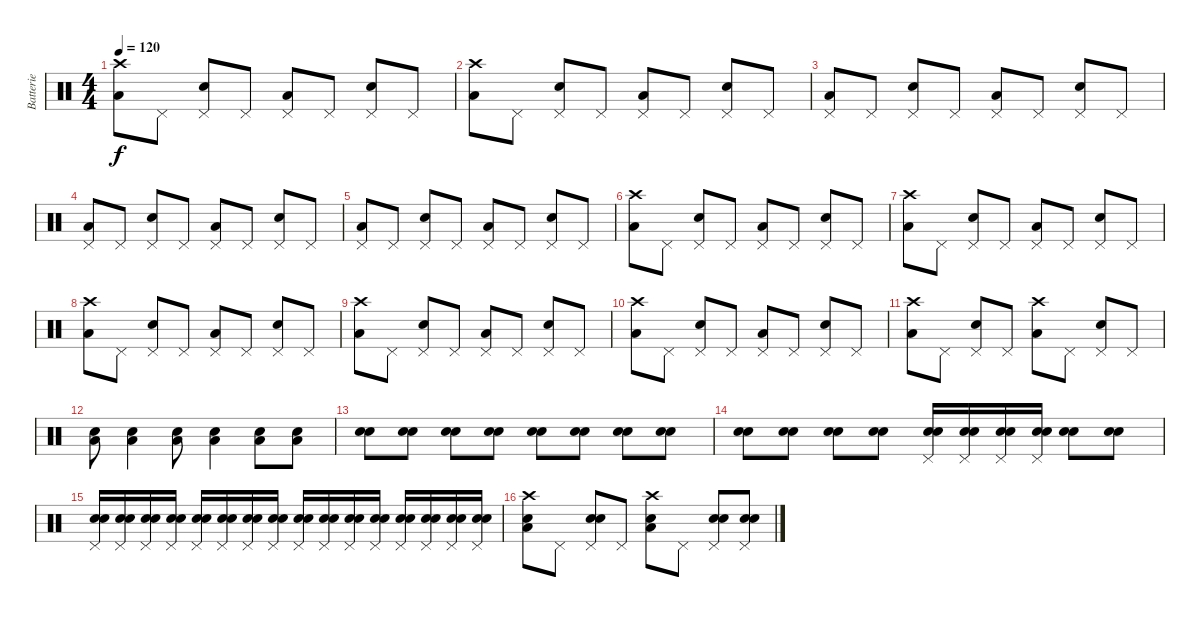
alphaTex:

\track ("Batterie" "Batterie") {instrument percussion}
\staff {score}
\articulation defaults
\ts (4 4)
\tempo 120
\clef neutral
\ks c
("Crash high (hit)" "Low Floor Tom (hit)").8{dy f} "Pedal Hi-Hat (hit)".8 ("Pedal Hi-Hat (hit)" "Electric Snare (hit)").8 "Pedal Hi-Hat (hit)".8 ("Pedal Hi-Hat (hit)" "Low Floor Tom (hit)").8 "Pedal Hi-Hat (hit)".8 ("Pedal Hi-Hat (hit)" "Electric Snare (hit)").8 "Pedal Hi-Hat (hit)".8 |
("Crash high (hit)" "Low Floor Tom (hit)").8 "Pedal Hi-Hat (hit)".8 ("Pedal Hi-Hat (hit)" "Electric Snare (hit)").8 "Pedal Hi-Hat (hit)".8 ("Pedal Hi-Hat (hit)" "Low Floor Tom (hit)").8 "Pedal Hi-Hat (hit)".8 ("Pedal Hi-Hat (hit)" "Electric Snare (hit)").8 "Pedal Hi-Hat (hit)".8 |
("Pedal Hi-Hat (hit)" "Low Floor Tom (hit)").8 "Pedal Hi-Hat (hit)".8 ("Pedal Hi-Hat (hit)" "Electric Snare (hit)").8 "Pedal Hi-Hat (hit)".8 ("Pedal Hi-Hat (hit)" "Low Floor Tom (hit)").8 "Pedal Hi-Hat (hit)".8 ("Pedal Hi-Hat (hit)" "Electric Snare (hit)").8 "Pedal Hi-Hat (hit)".8 |
("Pedal Hi-Hat (hit)" "Low Floor Tom (hit)").8 "Pedal Hi-Hat (hit)".8 ("Pedal Hi-Hat (hit)" "Electric Snare (hit)").8 "Pedal Hi-Hat (hit)".8 ("Pedal Hi-Hat (hit)" "Low Floor Tom (hit)").8 "Pedal Hi-Hat (hit)".8 ("Pedal Hi-Hat (hit)" "Electric Snare (hit)").8 "Pedal Hi-Hat (hit)".8 |
("Pedal Hi-Hat (hit)" "Low Floor Tom (hit)").8 "Pedal Hi-Hat (hit)".8 ("Pedal Hi-Hat (hit)" "Electric Snare (hit)").8 "Pedal Hi-Hat (hit)".8 ("Pedal Hi-Hat (hit)" "Low Floor Tom (hit)").8 "Pedal Hi-Hat (hit)".8 ("Pedal Hi-Hat (hit)" "Electric Snare (hit)").8 "Pedal Hi-Hat (hit)".8 |
("Crash high (hit)" "Low Floor Tom (hit)").8 "Pedal Hi-Hat (hit)".8 ("Pedal Hi-Hat (hit)" "Electric Snare (hit)").8 "Pedal Hi-Hat (hit)".8 ("Pedal Hi-Hat (hit)" "Low Floor Tom (hit)").8 "Pedal Hi-Hat (hit)".8 ("Pedal Hi-Hat (hit)" "Electric Snare (hit)").8 "Pedal Hi-Hat (hit)".8 |
("Crash high (hit)" "Low Floor Tom (hit)").8 "Pedal Hi-Hat (hit)".8 ("Pedal Hi-Hat (hit)" "Electric Snare (hit)").8 "Pedal Hi-Hat (hit)".8 ("Pedal Hi-Hat (hit)" "Low Floor Tom (hit)").8 "Pedal Hi-Hat (hit)".8 ("Pedal Hi-Hat (hit)" "Electric Snare (hit)").8 "Pedal Hi-Hat (hit)".8 |
("Crash high (hit)" "Low Floor Tom (hit)").8 "Pedal Hi-Hat (hit)".8 ("Pedal Hi-Hat (hit)" "Electric Snare (hit)").8 "Pedal Hi-Hat (hit)".8 ("Pedal Hi-Hat (hit)" "Low Floor Tom (hit)").8 "Pedal Hi-Hat (hit)".8 ("Pedal Hi-Hat (hit)" "Electric Snare (hit)").8 "Pedal Hi-Hat (hit)".8 |
("Crash high (hit)" "Low Floor Tom (hit)").8 "Pedal Hi-Hat (hit)".8 ("Pedal Hi-Hat (hit)" "Electric Snare (hit)").8 "Pedal Hi-Hat (hit)".8 ("Pedal Hi-Hat (hit)" "Low Floor Tom (hit)").8 "Pedal Hi-Hat (hit)".8 ("Pedal Hi-Hat (hit)" "Electric Snare (hit)").8 "Pedal Hi-Hat (hit)".8 |
("Crash high (hit)" "Low Floor Tom (hit)").8 "Pedal Hi-Hat (hit)".8 ("Pedal Hi-Hat (hit)" "Electric Snare (hit)").8 "Pedal Hi-Hat (hit)".8 ("Pedal Hi-Hat (hit)" "Low Floor Tom (hit)").8 "Pedal Hi-Hat (hit)".8 ("Pedal Hi-Hat (hit)" "Electric Snare (hit)").8 "Pedal Hi-Hat (hit)".8 |
("Crash high (hit)" "Low Floor Tom (hit)").8 "Pedal Hi-Hat (hit)".8 ("Pedal Hi-Hat (hit)" "Electric Snare (hit)").8 "Pedal Hi-Hat (hit)".8 ("Crash high (hit)" "Low Floor Tom (hit)").8 "Pedal Hi-Hat (hit)".8 ("Pedal Hi-Hat (hit)" "Electric Snare (hit)").8 "Pedal Hi-Hat (hit)".8 |
("Electric Snare (hit)" "Low Floor Tom (hit)").8 ("Electric Snare (hit)" "Low Floor Tom (hit)").4 ("Electric Snare (hit)" "Low Floor Tom (hit)").8 ("Electric Snare (hit)" "Low Floor Tom (hit)").4 ("Electric Snare (hit)" "Low Floor Tom (hit)").8 ("Electric Snare (hit)" "Low Floor Tom (hit)").8 |
("Electric Snare (hit)" "Snare (hit) 2").8 ("Electric Snare (hit)" "Snare (hit) 2").8 ("Electric Snare (hit)" "Snare (hit) 2").8 ("Electric Snare (hit)" "Snare (hit) 2").8 ("Electric Snare (hit)" "Snare (hit) 2").8 ("Electric Snare (hit)" "Snare (hit) 2").8 ("Electric Snare (hit)" "Snare (hit) 2").8 ("Electric Snare (hit)" "Snare (hit) 2").8 |
("Electric Snare (hit)" "Snare (hit) 2").8 ("Electric Snare (hit)" "Snare (hit) 2").8 ("Electric Snare (hit)" "Snare (hit) 2").8 ("Electric Snare (hit)" "Snare (hit) 2").8 ("Electric Snare (hit)" "Snare (hit) 2" "Pedal Hi-Hat (hit)").16 ("Electric Snare (hit)" "Snare (hit) 2" "Pedal Hi-Hat (hit)").16 ("Electric Snare (hit)" "Snare (hit) 2" "Pedal Hi-Hat (hit)").16 ("Electric Snare (hit)" "Snare (hit) 2" "Pedal Hi-Hat (hit)").16 ("Electric Snare (hit)" "Snare (hit) 2").8 ("Electric Snare (hit)" "Snare (hit) 2").8 |
("Electric Snare (hit)" "Snare (hit) 2" "Pedal Hi-Hat (hit)").16 ("Electric Snare (hit)" "Snare (hit) 2" "Pedal Hi-Hat (hit)").16 ("Electric Snare (hit)" "Snare (hit) 2" "Pedal Hi-Hat (hit)").16 ("Electric Snare (hit)" "Snare (hit) 2" "Pedal Hi-Hat (hit)").16 ("Electric Snare (hit)" "Snare (hit) 2" "Pedal Hi-Hat (hit)").16 ("Electric Snare (hit)" "Snare (hit) 2" "Pedal Hi-Hat (hit)").16 ("Electric Snare (hit)" "Snare (hit) 2" "Pedal Hi-Hat (hit)").16 ("Electric Snare (hit)" "Snare (hit) 2" "Pedal Hi-Hat (hit)").16 ("Electric Snare (hit)" "Snare (hit) 2" "Pedal Hi-Hat (hit)").16 ("Electric Snare (hit)" "Snare (hit) 2" "Pedal Hi-Hat (hit)").16 ("Electric Snare (hit)" "Snare (hit) 2" "Pedal Hi-Hat (hit)").16 ("Electric Snare (hit)" "Snare (hit) 2" "Pedal Hi-Hat (hit)").16 ("Electric Snare (hit)" "Snare (hit) 2" "Pedal Hi-Hat (hit)").16 ("Electric Snare (hit)" "Snare (hit) 2" "Pedal Hi-Hat (hit)").16 ("Electric Snare (hit)" "Snare (hit) 2" "Pedal Hi-Hat (hit)").16 ("Electric Snare (hit)" "Snare (hit) 2" "Pedal Hi-Hat (hit)").16 |
("Crash high (hit)" "Low Floor Tom (hit)" "Snare (hit) 2").8 "Pedal Hi-Hat (hit)".8 ("Pedal Hi-Hat (hit)" "Electric Snare (hit)" "Snare (hit) 2").8 "Pedal Hi-Hat (hit)".8 ("Crash high (hit)" "Low Floor Tom (hit)" "Snare (hit) 2").8 "Pedal Hi-Hat (hit)".8 ("Pedal Hi-Hat (hit)" "Electric Snare (hit)" "Snare (hit) 2").8 ("Pedal Hi-Hat (hit)" "Electric Snare (hit)" "Snare (hit) 2").8
